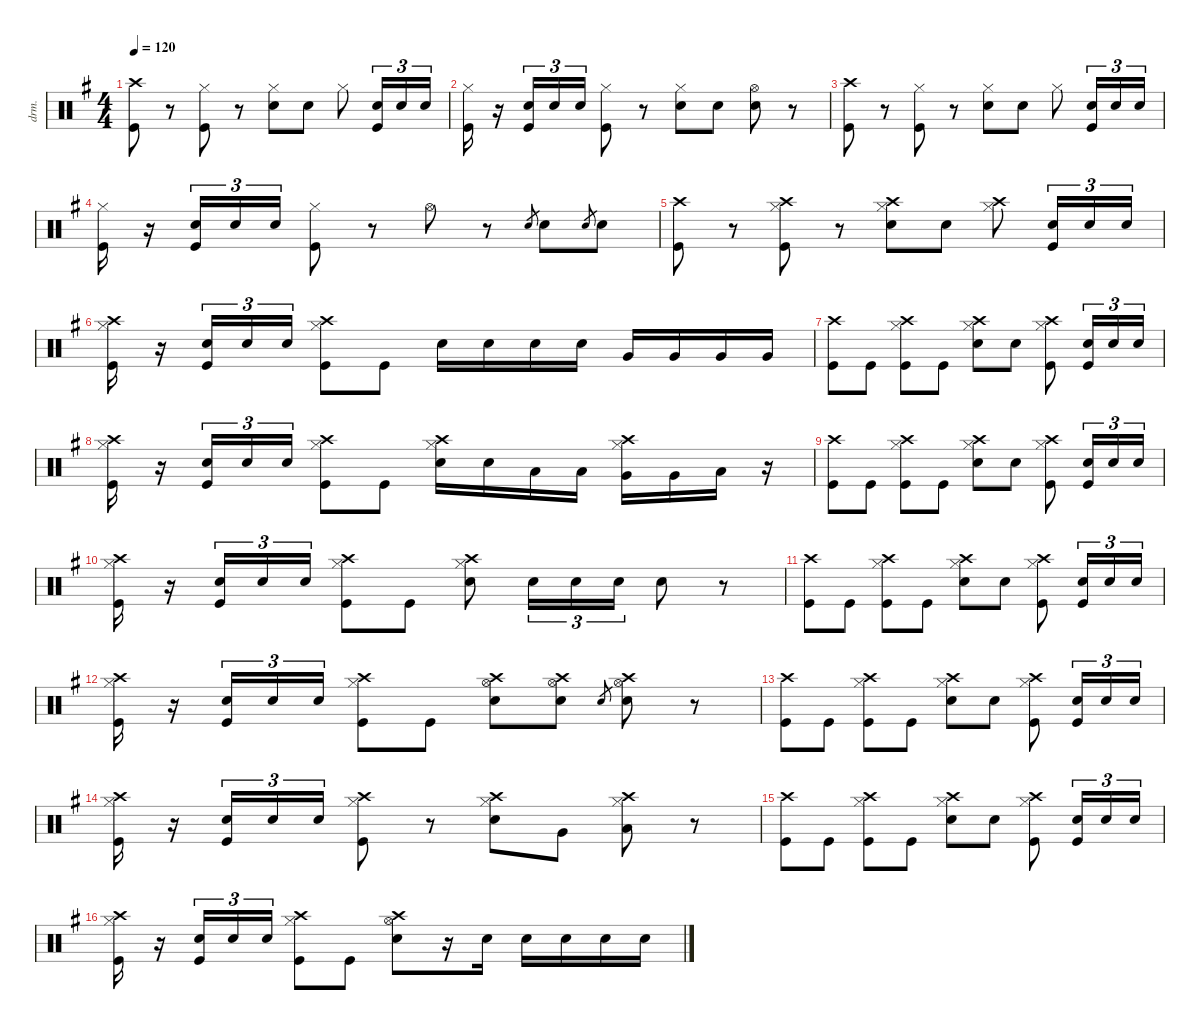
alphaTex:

\defaultSystemsLayout 4
\hideDynamics
\bracketExtendMode nobrackets
\track ("Drums (Bill Ward)" "drm.") {instrument percussion}
\staff {score}
\articulation defaults
\ts (4 4)
\tempo 120
\clef neutral
\ks g
("Crash high (hit)"{acc forcenatural} "Kick (hit)"{acc forcenatural}).8{dy f} r.8 ("Hi-Hat (closed)"{acc forcenatural} "Kick (hit)"{acc forcenatural}).8 r.8 ("Hi-Hat (closed)"{acc forcenatural} "Snare (hit) 2"{acc forcenatural}).8 "Snare (hit) 2"{acc forcenatural}.8 "Hi-Hat (closed)"{acc forcenatural}.8 ("Snare (hit) 2"{acc forcenatural} "Kick (hit)"{acc forcenatural}).16{tu (3 2) dy p} "Snare (hit) 2"{acc forcenatural}.16{tu (3 2)} "Snare (hit) 2"{acc forcenatural}.16{tu (3 2)} |
("Hi-Hat (closed)"{acc forcenatural} "Kick (hit)"{acc forcenatural}).16{dy f} r.16 ("Snare (hit) 2"{acc forcenatural} "Kick (hit)"{acc forcenatural}).16{tu (3 2) dy p} "Snare (hit) 2"{acc forcenatural}.16{tu (3 2)} "Snare (hit) 2"{acc forcenatural}.16{tu (3 2)} ("Hi-Hat (closed)"{acc forcenatural} "Kick (hit)"{acc forcenatural}).8{dy f} r.8 ("Hi-Hat (closed)"{acc forcenatural} "Snare (hit) 2"{acc forcenatural}).8 "Snare (hit) 2"{acc forcenatural}.8 ("Hi-Hat (open)"{acc forcenatural} "Snare (hit) 2"{acc forcenatural}).8{dy fff} r.8 |
("Crash high (hit)"{acc forcenatural} "Kick (hit)"{acc forcenatural}).8{dy f} r.8 ("Hi-Hat (closed)"{acc forcenatural} "Kick (hit)"{acc forcenatural}).8 r.8 ("Hi-Hat (closed)"{acc forcenatural} "Snare (hit) 2"{acc forcenatural}).8 "Snare (hit) 2"{acc forcenatural}.8 "Hi-Hat (closed)"{acc forcenatural}.8 ("Snare (hit) 2"{acc forcenatural} "Kick (hit)"{acc forcenatural}).16{tu (3 2) dy p} "Snare (hit) 2"{acc forcenatural}.16{tu (3 2)} "Snare (hit) 2"{acc forcenatural}.16{tu (3 2)} |
("Hi-Hat (closed)"{acc forcenatural} "Kick (hit)"{acc forcenatural}).16{dy f} r.16 ("Snare (hit) 2"{acc forcenatural} "Kick (hit)"{acc forcenatural}).16{tu (3 2) dy p} "Snare (hit) 2"{acc forcenatural}.16{tu (3 2)} "Snare (hit) 2"{acc forcenatural}.16{tu (3 2)} ("Hi-Hat (closed)"{acc forcenatural} "Kick (hit)"{acc forcenatural}).8{dy f} r.8 "Hi-Hat (open)"{acc forcenatural}.8 r.8 "Electric Snare (hit)"{acc forcenatural}.8{gr dy mf} "Snare (hit) 2"{acc forcenatural}.8{dy f} "Electric Snare (hit)"{acc forcenatural}.8{gr dy mf} "Snare (hit) 2"{acc forcenatural}.8{dy f} |
("Crash high (hit)"{acc forcenatural} "Kick (hit)"{acc forcenatural}).8 r.8 ("Crash high (hit)"{acc forcenatural} "Hi-Hat (closed)"{acc forcenatural} "Kick (hit)"{acc forcenatural}).8 r.8 ("Crash high (hit)"{acc forcenatural} "Hi-Hat (closed)"{acc forcenatural} "Snare (hit) 2"{acc forcenatural}).8 "Snare (hit) 2"{acc forcenatural}.8 ("Crash high (hit)"{acc forcenatural} "Hi-Hat (closed)"{acc forcenatural}).8 ("Snare (hit) 2"{acc forcenatural} "Kick (hit)"{acc forcenatural}).16{tu (3 2) dy p} "Snare (hit) 2"{acc forcenatural}.16{tu (3 2)} "Snare (hit) 2"{acc forcenatural}.16{tu (3 2)} |
("Crash high (hit)"{acc forcenatural} "Hi-Hat (closed)"{acc forcenatural} "Kick (hit)"{acc forcenatural}).16{dy f} r.16 ("Snare (hit) 2"{acc forcenatural} "Kick (hit)"{acc forcenatural}).16{tu (3 2) dy p} "Snare (hit) 2"{acc forcenatural}.16{tu (3 2)} "Snare (hit) 2"{acc forcenatural}.16{tu (3 2)} ("Crash high (hit)"{acc forcenatural} "Hi-Hat (closed)"{acc forcenatural} "Kick (hit)"{acc forcenatural}).8{dy f} "Kick (hit)"{acc forcenatural}.8 "Snare (hit) 2"{acc forcenatural}.16 "Snare (hit) 2"{acc forcenatural}.16 "Snare (hit) 2"{acc forcenatural}.16 "Snare (hit) 2"{acc forcenatural}.16 "Very Low Tom (hit)"{acc forcenatural}.16 "Very Low Tom (hit)"{acc forcenatural}.16 "Very Low Tom (hit)"{acc forcenatural}.16 "Very Low Tom (hit)"{acc forcenatural}.16 |
("Crash high (hit)"{acc forcenatural} "Kick (hit)"{acc forcenatural}).8 "Kick (hit)"{acc forcenatural}.8 ("Crash high (hit)"{acc forcenatural} "Hi-Hat (closed)"{acc forcenatural} "Kick (hit)"{acc forcenatural}).8 "Kick (hit)"{acc forcenatural}.8 ("Crash high (hit)"{acc forcenatural} "Hi-Hat (closed)"{acc forcenatural} "Snare (hit) 2"{acc forcenatural}).8 "Snare (hit) 2"{acc forcenatural}.8 ("Crash high (hit)"{acc forcenatural} "Hi-Hat (closed)"{acc forcenatural} "Kick (hit)"{acc forcenatural}).8 ("Snare (hit) 2"{acc forcenatural} "Kick (hit)"{acc forcenatural}).16{tu (3 2) dy p} "Snare (hit) 2"{acc forcenatural}.16{tu (3 2)} "Snare (hit) 2"{acc forcenatural}.16{tu (3 2)} |
("Crash high (hit)"{acc forcenatural} "Hi-Hat (closed)"{acc forcenatural} "Kick (hit)"{acc forcenatural}).16{dy f} r.16 ("Snare (hit) 2"{acc forcenatural} "Kick (hit)"{acc forcenatural}).16{tu (3 2) dy p} "Snare (hit) 2"{acc forcenatural}.16{tu (3 2)} "Snare (hit) 2"{acc forcenatural}.16{tu (3 2)} ("Crash high (hit)"{acc forcenatural} "Hi-Hat (closed)"{acc forcenatural} "Kick (hit)"{acc forcenatural}).8{dy f} "Kick (hit)"{acc forcenatural}.8 ("Crash high (hit)"{acc forcenatural} "Hi-Hat (closed)"{acc forcenatural} "Snare (hit) 2"{acc forcenatural}).16 "Snare (hit) 2"{acc forcenatural}.16 "Low Tom (hit)"{acc forcenatural}.16 "Low Tom (hit)"{acc forcenatural}.16 ("Crash high (hit)"{acc forcenatural} "Hi-Hat (closed)"{acc forcenatural} "Very Low Tom (hit)"{acc forcenatural}).16 "Very Low Tom (hit)"{acc forcenatural}.16 "Low Floor Tom (hit)"{acc forcenatural}.16 r.16 |
("Crash high (hit)"{acc forcenatural} "Kick (hit)"{acc forcenatural}).8 "Kick (hit)"{acc forcenatural}.8 ("Crash high (hit)"{acc forcenatural} "Hi-Hat (closed)"{acc forcenatural} "Kick (hit)"{acc forcenatural}).8 "Kick (hit)"{acc forcenatural}.8 ("Crash high (hit)"{acc forcenatural} "Hi-Hat (closed)"{acc forcenatural} "Snare (hit) 2"{acc forcenatural}).8 "Snare (hit) 2"{acc forcenatural}.8 ("Crash high (hit)"{acc forcenatural} "Hi-Hat (closed)"{acc forcenatural} "Kick (hit)"{acc forcenatural}).8 ("Snare (hit) 2"{acc forcenatural} "Kick (hit)"{acc forcenatural}).16{tu (3 2) dy p} "Snare (hit) 2"{acc forcenatural}.16{tu (3 2)} "Snare (hit) 2"{acc forcenatural}.16{tu (3 2)} |
("Crash high (hit)"{acc forcenatural} "Hi-Hat (closed)"{acc forcenatural} "Kick (hit)"{acc forcenatural}).16{dy f} r.16 ("Snare (hit) 2"{acc forcenatural} "Kick (hit)"{acc forcenatural}).16{tu (3 2) dy p} "Snare (hit) 2"{acc forcenatural}.16{tu (3 2)} "Snare (hit) 2"{acc forcenatural}.16{tu (3 2)} ("Crash high (hit)"{acc forcenatural} "Hi-Hat (closed)"{acc forcenatural} "Kick (hit)"{acc forcenatural}).8{dy f} "Kick (hit)"{acc forcenatural}.8 ("Crash high (hit)"{acc forcenatural} "Hi-Hat (closed)"{acc forcenatural} "Snare (hit) 2"{acc forcenatural}).8 "Snare (hit) 2"{acc forcenatural}.16{tu (3 2)} "Snare (hit) 2"{acc forcenatural}.16{tu (3 2)} "Snare (hit) 2"{acc forcenatural}.16{tu (3 2)} "Snare (hit) 2"{acc forcenatural}.8{dy fff} r.8 |
("Crash high (hit)"{acc forcenatural} "Kick (hit)"{acc forcenatural}).8{dy f} "Kick (hit)"{acc forcenatural}.8 ("Crash high (hit)"{acc forcenatural} "Hi-Hat (closed)"{acc forcenatural} "Kick (hit)"{acc forcenatural}).8 "Kick (hit)"{acc forcenatural}.8 ("Crash high (hit)"{acc forcenatural} "Hi-Hat (closed)"{acc forcenatural} "Snare (hit) 2"{acc forcenatural}).8 "Snare (hit) 2"{acc forcenatural}.8 ("Crash high (hit)"{acc forcenatural} "Hi-Hat (closed)"{acc forcenatural} "Kick (hit)"{acc forcenatural}).8 ("Snare (hit) 2"{acc forcenatural} "Kick (hit)"{acc forcenatural}).16{tu (3 2) dy p} "Snare (hit) 2"{acc forcenatural}.16{tu (3 2)} "Snare (hit) 2"{acc forcenatural}.16{tu (3 2)} |
("Crash high (hit)"{acc forcenatural} "Hi-Hat (closed)"{acc forcenatural} "Kick (hit)"{acc forcenatural}).16{dy f} r.16 ("Snare (hit) 2"{acc forcenatural} "Kick (hit)"{acc forcenatural}).16{tu (3 2) dy p} "Snare (hit) 2"{acc forcenatural}.16{tu (3 2)} "Snare (hit) 2"{acc forcenatural}.16{tu (3 2)} ("Crash high (hit)"{acc forcenatural} "Hi-Hat (closed)"{acc forcenatural} "Kick (hit)"{acc forcenatural}).8{dy f} "Kick (hit)"{acc forcenatural}.8 ("Crash high (hit)"{acc forcenatural} "Hi-Hat (open)"{acc forcenatural} "Snare (hit) 2"{acc forcenatural}).8 ("Crash high (hit)"{acc forcenatural} "Hi-Hat (open)"{acc forcenatural} "Snare (hit) 2"{acc forcenatural}).8 "Electric Snare (hit)"{acc forcenatural}.8{gr dy mf} ("Crash high (hit)"{acc forcenatural} "Hi-Hat (open)"{acc forcenatural} "Snare (hit) 2"{acc forcenatural}).8{dy f} r.8 |
("Crash high (hit)"{acc forcenatural} "Kick (hit)"{acc forcenatural}).8 "Kick (hit)"{acc forcenatural}.8 ("Crash high (hit)"{acc forcenatural} "Hi-Hat (closed)"{acc forcenatural} "Kick (hit)"{acc forcenatural}).8 "Kick (hit)"{acc forcenatural}.8 ("Crash high (hit)"{acc forcenatural} "Hi-Hat (closed)"{acc forcenatural} "Snare (hit) 2"{acc forcenatural}).8 "Snare (hit) 2"{acc forcenatural}.8 ("Crash high (hit)"{acc forcenatural} "Hi-Hat (closed)"{acc forcenatural} "Kick (hit)"{acc forcenatural}).8 ("Snare (hit) 2"{acc forcenatural} "Kick (hit)"{acc forcenatural}).16{tu (3 2) dy p} "Snare (hit) 2"{acc forcenatural}.16{tu (3 2)} "Snare (hit) 2"{acc forcenatural}.16{tu (3 2)} |
("Crash high (hit)"{acc forcenatural} "Hi-Hat (closed)"{acc forcenatural} "Kick (hit)"{acc forcenatural}).16{dy f} r.16 ("Snare (hit) 2"{acc forcenatural} "Kick (hit)"{acc forcenatural}).16{tu (3 2) dy p} "Snare (hit) 2"{acc forcenatural}.16{tu (3 2)} "Snare (hit) 2"{acc forcenatural}.16{tu (3 2)} ("Crash high (hit)"{acc forcenatural} "Hi-Hat (closed)"{acc forcenatural} "Kick (hit)"{acc forcenatural}).8{dy f} r.8 ("Crash high (hit)"{acc forcenatural} "Hi-Hat (closed)"{acc forcenatural} "Snare (hit) 2"{acc forcenatural}).8 "Very Low Tom (hit)"{acc forcenatural}.8 ("Crash high (hit)"{acc forcenatural} "Hi-Hat (closed)"{acc forcenatural} "Low Floor Tom (hit)"{acc forcenatural}).8 r.8 |
("Crash high (hit)"{acc forcenatural} "Kick (hit)"{acc forcenatural}).8 "Kick (hit)"{acc forcenatural}.8 ("Crash high (hit)"{acc forcenatural} "Hi-Hat (closed)"{acc forcenatural} "Kick (hit)"{acc forcenatural}).8 "Kick (hit)"{acc forcenatural}.8 ("Crash high (hit)"{acc forcenatural} "Hi-Hat (closed)"{acc forcenatural} "Snare (hit) 2"{acc forcenatural}).8 "Snare (hit) 2"{acc forcenatural}.8 ("Crash high (hit)"{acc forcenatural} "Hi-Hat (closed)"{acc forcenatural} "Kick (hit)"{acc forcenatural}).8 ("Snare (hit) 2"{acc forcenatural} "Kick (hit)"{acc forcenatural}).16{tu (3 2) dy p} "Snare (hit) 2"{acc forcenatural}.16{tu (3 2)} "Snare (hit) 2"{acc forcenatural}.16{tu (3 2)} |
("Crash high (hit)"{acc forcenatural} "Hi-Hat (closed)"{acc forcenatural} "Kick (hit)"{acc forcenatural}).16{dy f} r.16 ("Snare (hit) 2"{acc forcenatural} "Kick (hit)"{acc forcenatural}).16{tu (3 2) dy p} "Snare (hit) 2"{acc forcenatural}.16{tu (3 2)} "Snare (hit) 2"{acc forcenatural}.16{tu (3 2)} ("Crash high (hit)"{acc forcenatural} "Hi-Hat (closed)"{acc forcenatural} "Kick (hit)"{acc forcenatural}).8{dy f} "Kick (hit)"{acc forcenatural}.8 ("Crash high (hit)"{acc forcenatural} "Hi-Hat (open)"{acc forcenatural} "Snare (hit) 2"{acc forcenatural}).8 r.16 "Snare (hit) 2"{acc forcenatural}.16 "Snare (hit) 2"{acc forcenatural}.16 "Snare (hit) 2"{acc forcenatural}.16 "Snare (hit) 2"{acc forcenatural}.16 "Snare (hit) 2"{acc forcenatural}.16
